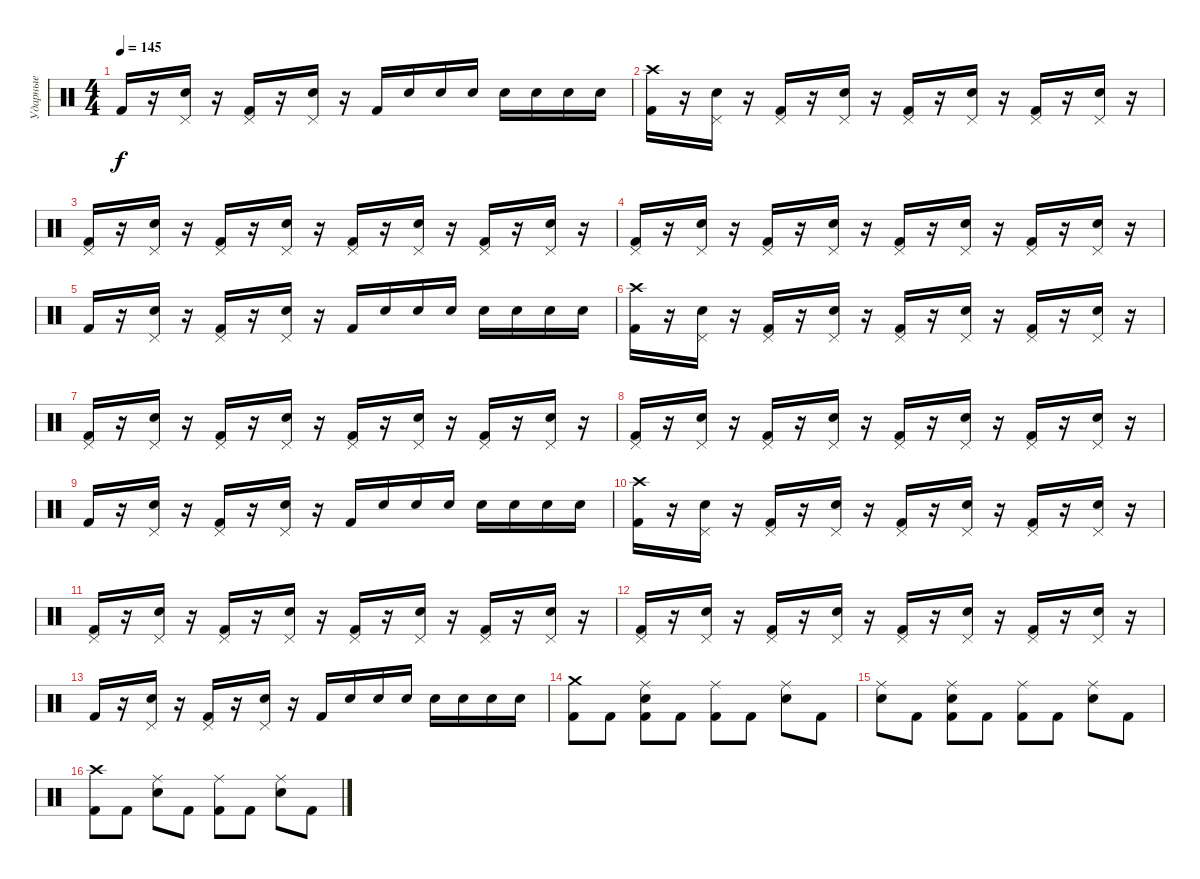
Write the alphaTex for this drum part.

\track ("Ударные" "Ударные") {instrument percussion}
\staff {score}
\articulation defaults
\ts (4 4)
\tempo 145
\clef neutral
\ks c "Kick (hit) 2".16{dy f}
r.16 ("Electric Snare (hit)" "Pedal Hi-Hat (hit)").16 r.16 ("Kick (hit) 2" "Pedal Hi-Hat (hit)").16 r.16 ("Electric Snare (hit)" "Pedal Hi-Hat (hit)").16 r.16 "Kick (hit) 2".16 "Electric Snare (hit)".16 "Electric Snare (hit)".16 "Electric Snare (hit)".16 "Electric Snare (hit)".16 "Electric Snare (hit)".16 "Electric Snare (hit)".16 "Electric Snare (hit)".16 |
("Kick (hit) 2" "Crash high (hit)").16 r.16 ("Electric Snare (hit)" "Pedal Hi-Hat (hit)").16 r.16 ("Kick (hit) 2" "Pedal Hi-Hat (hit)").16 r.16 ("Electric Snare (hit)" "Pedal Hi-Hat (hit)").16 r.16 ("Kick (hit) 2" "Pedal Hi-Hat (hit)").16 r.16 ("Electric Snare (hit)" "Pedal Hi-Hat (hit)").16 r.16 ("Kick (hit) 2" "Pedal Hi-Hat (hit)").16 r.16 ("Electric Snare (hit)" "Pedal Hi-Hat (hit)").16 r.16 |
("Kick (hit) 2" "Pedal Hi-Hat (hit)").16 r.16 ("Electric Snare (hit)" "Pedal Hi-Hat (hit)").16 r.16 ("Kick (hit) 2" "Pedal Hi-Hat (hit)").16 r.16 ("Electric Snare (hit)" "Pedal Hi-Hat (hit)").16 r.16 ("Kick (hit) 2" "Pedal Hi-Hat (hit)").16 r.16 ("Electric Snare (hit)" "Pedal Hi-Hat (hit)").16 r.16 ("Kick (hit) 2" "Pedal Hi-Hat (hit)").16 r.16 ("Electric Snare (hit)" "Pedal Hi-Hat (hit)").16 r.16 |
("Kick (hit) 2" "Pedal Hi-Hat (hit)").16 r.16 ("Electric Snare (hit)" "Pedal Hi-Hat (hit)").16 r.16 ("Kick (hit) 2" "Pedal Hi-Hat (hit)").16 r.16 ("Electric Snare (hit)" "Pedal Hi-Hat (hit)").16 r.16 ("Kick (hit) 2" "Pedal Hi-Hat (hit)").16 r.16 ("Electric Snare (hit)" "Pedal Hi-Hat (hit)").16 r.16 ("Kick (hit) 2" "Pedal Hi-Hat (hit)").16 r.16 ("Electric Snare (hit)" "Pedal Hi-Hat (hit)").16 r.16 |
"Kick (hit) 2".16 r.16 ("Electric Snare (hit)" "Pedal Hi-Hat (hit)").16 r.16 ("Kick (hit) 2" "Pedal Hi-Hat (hit)").16 r.16 ("Electric Snare (hit)" "Pedal Hi-Hat (hit)").16 r.16 "Kick (hit) 2".16 "Electric Snare (hit)".16 "Electric Snare (hit)".16 "Electric Snare (hit)".16 "Electric Snare (hit)".16 "Electric Snare (hit)".16 "Electric Snare (hit)".16 "Electric Snare (hit)".16 |
("Kick (hit) 2" "Crash high (hit)").16 r.16 ("Electric Snare (hit)" "Pedal Hi-Hat (hit)").16 r.16 ("Kick (hit) 2" "Pedal Hi-Hat (hit)").16 r.16 ("Electric Snare (hit)" "Pedal Hi-Hat (hit)").16 r.16 ("Kick (hit) 2" "Pedal Hi-Hat (hit)").16 r.16 ("Electric Snare (hit)" "Pedal Hi-Hat (hit)").16 r.16 ("Kick (hit) 2" "Pedal Hi-Hat (hit)").16 r.16 ("Electric Snare (hit)" "Pedal Hi-Hat (hit)").16 r.16 |
("Kick (hit) 2" "Pedal Hi-Hat (hit)").16 r.16 ("Electric Snare (hit)" "Pedal Hi-Hat (hit)").16 r.16 ("Kick (hit) 2" "Pedal Hi-Hat (hit)").16 r.16 ("Electric Snare (hit)" "Pedal Hi-Hat (hit)").16 r.16 ("Kick (hit) 2" "Pedal Hi-Hat (hit)").16 r.16 ("Electric Snare (hit)" "Pedal Hi-Hat (hit)").16 r.16 ("Kick (hit) 2" "Pedal Hi-Hat (hit)").16 r.16 ("Electric Snare (hit)" "Pedal Hi-Hat (hit)").16 r.16 |
("Kick (hit) 2" "Pedal Hi-Hat (hit)").16 r.16 ("Electric Snare (hit)" "Pedal Hi-Hat (hit)").16 r.16 ("Kick (hit) 2" "Pedal Hi-Hat (hit)").16 r.16 ("Electric Snare (hit)" "Pedal Hi-Hat (hit)").16 r.16 ("Kick (hit) 2" "Pedal Hi-Hat (hit)").16 r.16 ("Electric Snare (hit)" "Pedal Hi-Hat (hit)").16 r.16 ("Kick (hit) 2" "Pedal Hi-Hat (hit)").16 r.16 ("Electric Snare (hit)" "Pedal Hi-Hat (hit)").16 r.16 |
"Kick (hit) 2".16 r.16 ("Electric Snare (hit)" "Pedal Hi-Hat (hit)").16 r.16 ("Kick (hit) 2" "Pedal Hi-Hat (hit)").16 r.16 ("Electric Snare (hit)" "Pedal Hi-Hat (hit)").16 r.16 "Kick (hit) 2".16 "Electric Snare (hit)".16 "Electric Snare (hit)".16 "Electric Snare (hit)".16 "Electric Snare (hit)".16 "Electric Snare (hit)".16 "Electric Snare (hit)".16 "Electric Snare (hit)".16 |
("Kick (hit) 2" "Crash high (hit)").16 r.16 ("Electric Snare (hit)" "Pedal Hi-Hat (hit)").16 r.16 ("Kick (hit) 2" "Pedal Hi-Hat (hit)").16 r.16 ("Electric Snare (hit)" "Pedal Hi-Hat (hit)").16 r.16 ("Kick (hit) 2" "Pedal Hi-Hat (hit)").16 r.16 ("Electric Snare (hit)" "Pedal Hi-Hat (hit)").16 r.16 ("Kick (hit) 2" "Pedal Hi-Hat (hit)").16 r.16 ("Electric Snare (hit)" "Pedal Hi-Hat (hit)").16 r.16 |
("Kick (hit) 2" "Pedal Hi-Hat (hit)").16 r.16 ("Electric Snare (hit)" "Pedal Hi-Hat (hit)").16 r.16 ("Kick (hit) 2" "Pedal Hi-Hat (hit)").16 r.16 ("Electric Snare (hit)" "Pedal Hi-Hat (hit)").16 r.16 ("Kick (hit) 2" "Pedal Hi-Hat (hit)").16 r.16 ("Electric Snare (hit)" "Pedal Hi-Hat (hit)").16 r.16 ("Kick (hit) 2" "Pedal Hi-Hat (hit)").16 r.16 ("Electric Snare (hit)" "Pedal Hi-Hat (hit)").16 r.16 |
("Kick (hit) 2" "Pedal Hi-Hat (hit)").16 r.16 ("Electric Snare (hit)" "Pedal Hi-Hat (hit)").16 r.16 ("Kick (hit) 2" "Pedal Hi-Hat (hit)").16 r.16 ("Electric Snare (hit)" "Pedal Hi-Hat (hit)").16 r.16 ("Kick (hit) 2" "Pedal Hi-Hat (hit)").16 r.16 ("Electric Snare (hit)" "Pedal Hi-Hat (hit)").16 r.16 ("Kick (hit) 2" "Pedal Hi-Hat (hit)").16 r.16 ("Electric Snare (hit)" "Pedal Hi-Hat (hit)").16 r.16 |
"Kick (hit) 2".16 r.16 ("Electric Snare (hit)" "Pedal Hi-Hat (hit)").16 r.16 ("Kick (hit) 2" "Pedal Hi-Hat (hit)").16 r.16 ("Electric Snare (hit)" "Pedal Hi-Hat (hit)").16 r.16 "Kick (hit) 2".16 "Electric Snare (hit)".16 "Electric Snare (hit)".16 "Electric Snare (hit)".16 "Electric Snare (hit)".16 "Electric Snare (hit)".16 "Electric Snare (hit)".16 "Electric Snare (hit)".16 |
("Crash medium (hit)" "Kick (hit) 2").8 "Kick (hit) 2".8 ("Ride (middle)" "Kick (hit) 2" "Electric Snare (hit)").8 "Kick (hit) 2".8 ("Kick (hit) 2" "Ride (middle)").8 "Kick (hit) 2".8 ("Ride (middle)" "Electric Snare (hit)").8 "Kick (hit) 2".8 |
("Ride (middle)" "Electric Snare (hit)").8 "Kick (hit) 2".8 ("Ride (middle)" "Electric Snare (hit)" "Kick (hit) 2").8 "Kick (hit) 2".8 ("Ride (middle)" "Kick (hit) 2").8 "Kick (hit) 2".8 ("Ride (middle)" "Electric Snare (hit)").8 "Kick (hit) 2".8 |
("Crash high (hit)" "Kick (hit) 2").8 "Kick (hit) 2".8 ("Ride (middle)" "Electric Snare (hit)").8 "Kick (hit) 2".8 ("Ride (middle)" "Kick (hit) 2").8 "Kick (hit) 2".8 ("Ride (middle)" "Electric Snare (hit)").8 "Kick (hit) 2".8
